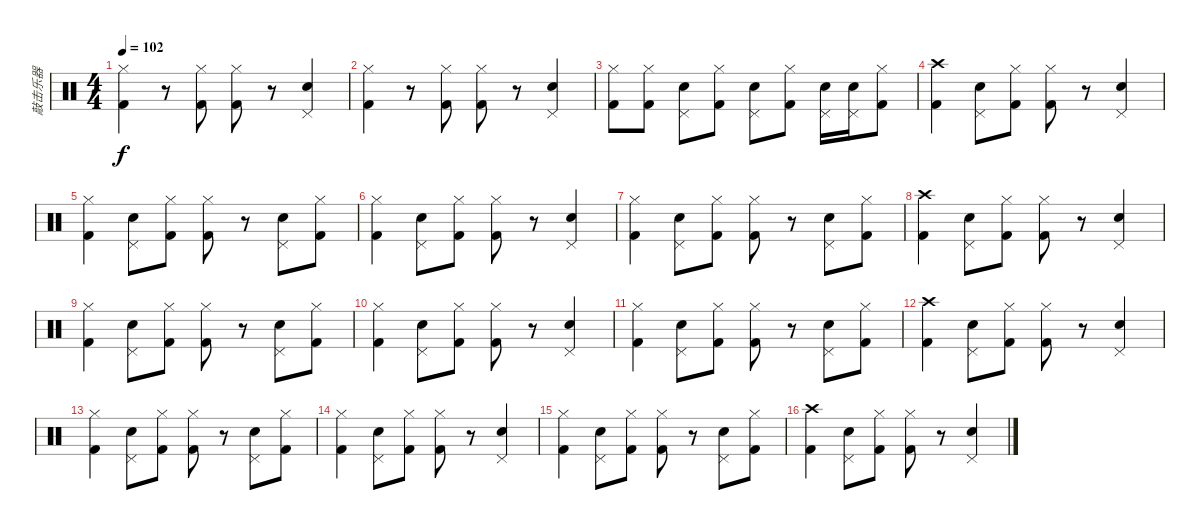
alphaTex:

\track ("敲击乐器" "敲击乐器") {instrument percussion}
\staff {score}
\articulation defaults
\ts (4 4)
\tempo 102
\clef neutral
\ks c
("Hi-Hat (closed)" "Kick (hit) 2").4{dy f} r.8 ("Hi-Hat (closed)" "Kick (hit) 2").8 ("Hi-Hat (closed)" "Kick (hit) 2").8 r.8 ("Pedal Hi-Hat (hit)" "Snare (hit) 2").4 |
("Hi-Hat (closed)" "Kick (hit) 2").4 r.8 ("Hi-Hat (closed)" "Kick (hit) 2").8 ("Hi-Hat (closed)" "Kick (hit) 2").8 r.8 ("Pedal Hi-Hat (hit)" "Snare (hit) 2").4 |
("Hi-Hat (closed)" "Kick (hit) 2").8 ("Hi-Hat (closed)" "Kick (hit) 2").8 ("Pedal Hi-Hat (hit)" "Snare (hit) 2").8 ("Hi-Hat (closed)" "Kick (hit) 2").8 ("Pedal Hi-Hat (hit)" "Snare (hit) 2").8 ("Hi-Hat (closed)" "Kick (hit) 2").8 ("Pedal Hi-Hat (hit)" "Snare (hit) 2").16 ("Pedal Hi-Hat (hit)" "Snare (hit) 2").16 ("Hi-Hat (closed)" "Kick (hit) 2").8 |
("Crash high (hit)" "Kick (hit) 2").4 ("Pedal Hi-Hat (hit)" "Snare (hit) 2").8 ("Hi-Hat (closed)" "Kick (hit) 2").8 ("Hi-Hat (closed)" "Kick (hit) 2").8 r.8 ("Pedal Hi-Hat (hit)" "Snare (hit) 2").4 |
("Hi-Hat (closed)" "Kick (hit) 2").4 ("Pedal Hi-Hat (hit)" "Snare (hit) 2").8 ("Hi-Hat (closed)" "Kick (hit) 2").8 ("Hi-Hat (closed)" "Kick (hit) 2").8 r.8 ("Pedal Hi-Hat (hit)" "Snare (hit) 2").8 ("Hi-Hat (closed)" "Kick (hit) 2").8 |
("Hi-Hat (closed)" "Kick (hit) 2").4 ("Pedal Hi-Hat (hit)" "Snare (hit) 2").8 ("Hi-Hat (closed)" "Kick (hit) 2").8 ("Hi-Hat (closed)" "Kick (hit) 2").8 r.8 ("Pedal Hi-Hat (hit)" "Snare (hit) 2").4 |
("Hi-Hat (closed)" "Kick (hit) 2").4 ("Pedal Hi-Hat (hit)" "Snare (hit) 2").8 ("Hi-Hat (closed)" "Kick (hit) 2").8 ("Hi-Hat (closed)" "Kick (hit) 2").8 r.8 ("Pedal Hi-Hat (hit)" "Snare (hit) 2").8 ("Hi-Hat (closed)" "Kick (hit) 2").8 |
("Crash high (hit)" "Kick (hit) 2").4 ("Pedal Hi-Hat (hit)" "Snare (hit) 2").8 ("Hi-Hat (closed)" "Kick (hit) 2").8 ("Hi-Hat (closed)" "Kick (hit) 2").8 r.8 ("Pedal Hi-Hat (hit)" "Snare (hit) 2").4 |
("Hi-Hat (closed)" "Kick (hit) 2").4 ("Pedal Hi-Hat (hit)" "Snare (hit) 2").8 ("Hi-Hat (closed)" "Kick (hit) 2").8 ("Hi-Hat (closed)" "Kick (hit) 2").8 r.8 ("Pedal Hi-Hat (hit)" "Snare (hit) 2").8 ("Hi-Hat (closed)" "Kick (hit) 2").8 |
("Hi-Hat (closed)" "Kick (hit) 2").4 ("Pedal Hi-Hat (hit)" "Snare (hit) 2").8 ("Hi-Hat (closed)" "Kick (hit) 2").8 ("Hi-Hat (closed)" "Kick (hit) 2").8 r.8 ("Pedal Hi-Hat (hit)" "Snare (hit) 2").4 |
("Hi-Hat (closed)" "Kick (hit) 2").4 ("Pedal Hi-Hat (hit)" "Snare (hit) 2").8 ("Hi-Hat (closed)" "Kick (hit) 2").8 ("Hi-Hat (closed)" "Kick (hit) 2").8 r.8 ("Pedal Hi-Hat (hit)" "Snare (hit) 2").8 ("Hi-Hat (closed)" "Kick (hit) 2").8 |
("Crash high (hit)" "Kick (hit) 2").4 ("Pedal Hi-Hat (hit)" "Snare (hit) 2").8 ("Hi-Hat (closed)" "Kick (hit) 2").8 ("Hi-Hat (closed)" "Kick (hit) 2").8 r.8 ("Pedal Hi-Hat (hit)" "Snare (hit) 2").4 |
("Hi-Hat (closed)" "Kick (hit) 2").4 ("Pedal Hi-Hat (hit)" "Snare (hit) 2").8 ("Hi-Hat (closed)" "Kick (hit) 2").8 ("Hi-Hat (closed)" "Kick (hit) 2").8 r.8 ("Pedal Hi-Hat (hit)" "Snare (hit) 2").8 ("Hi-Hat (closed)" "Kick (hit) 2").8 |
("Hi-Hat (closed)" "Kick (hit) 2").4 ("Pedal Hi-Hat (hit)" "Snare (hit) 2").8 ("Hi-Hat (closed)" "Kick (hit) 2").8 ("Hi-Hat (closed)" "Kick (hit) 2").8 r.8 ("Pedal Hi-Hat (hit)" "Snare (hit) 2").4 |
("Hi-Hat (closed)" "Kick (hit) 2").4 ("Pedal Hi-Hat (hit)" "Snare (hit) 2").8 ("Hi-Hat (closed)" "Kick (hit) 2").8 ("Hi-Hat (closed)" "Kick (hit) 2").8 r.8 ("Pedal Hi-Hat (hit)" "Snare (hit) 2").8 ("Hi-Hat (closed)" "Kick (hit) 2").8 |
("Crash high (hit)" "Kick (hit) 2").4 ("Pedal Hi-Hat (hit)" "Snare (hit) 2").8 ("Hi-Hat (closed)" "Kick (hit) 2").8 ("Hi-Hat (closed)" "Kick (hit) 2").8 r.8 ("Pedal Hi-Hat (hit)" "Snare (hit) 2").4
